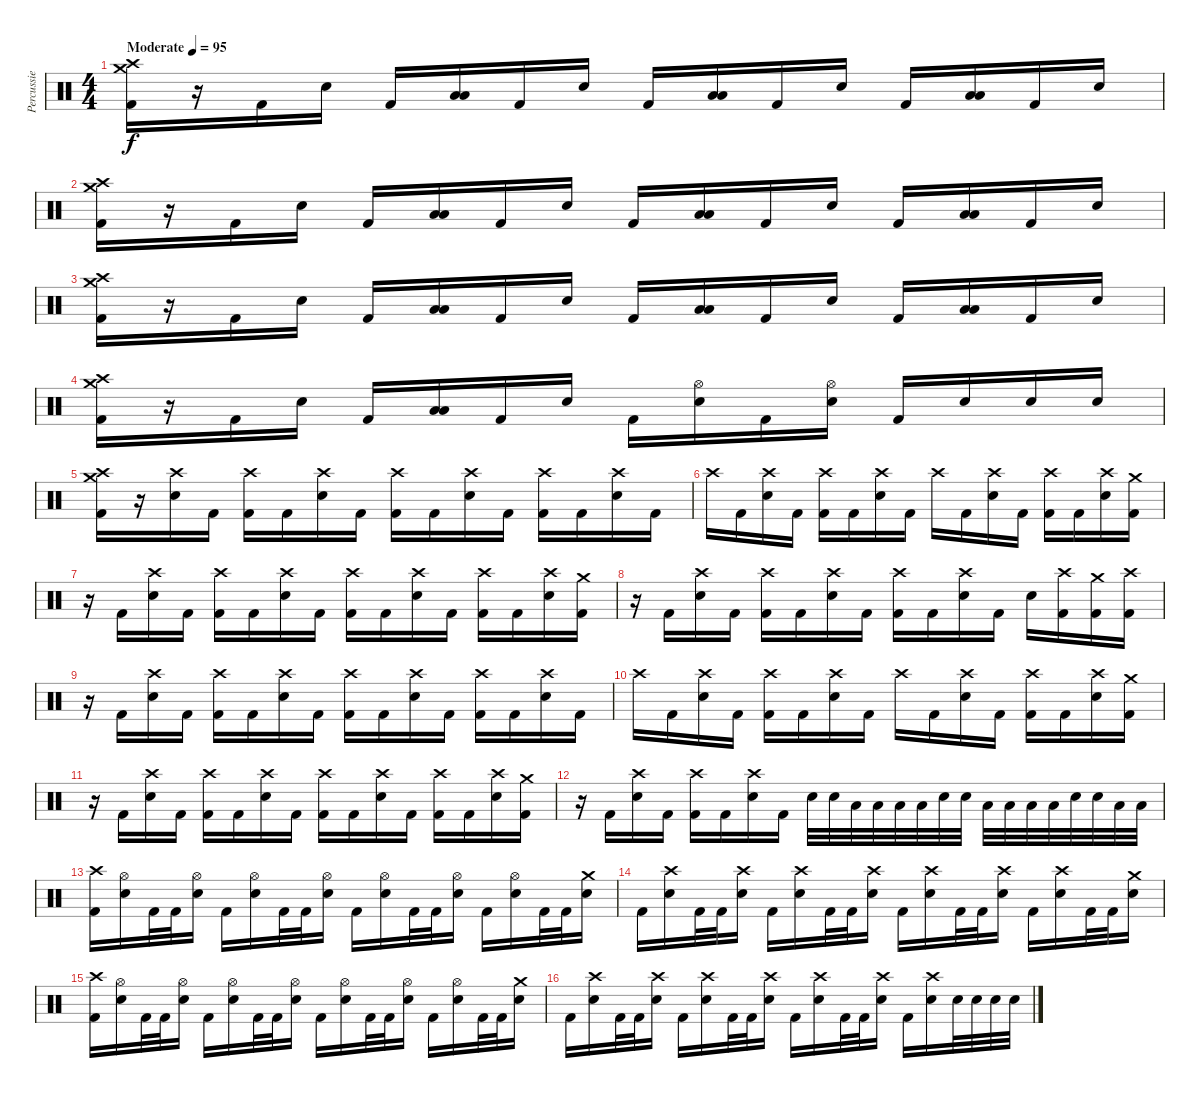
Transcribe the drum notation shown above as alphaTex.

\track ("Percussie" "Percussie") {instrument percussion}
\staff {score}
\articulation defaults
\ts (4 4)
\tempo (95 "Moderate")
\clef neutral
\ks c
("Crash medium (hit)" "Crash high (hit)" "Kick (hit) 2").16{dy f} r.16 "Kick (hit) 2".16 "Electric Snare (hit)".16 "Kick (hit) 2".16 ("Low Tom (hit)" "Low Floor Tom (hit)").16 "Kick (hit) 2".16 "Electric Snare (hit)".16 "Kick (hit) 2".16 ("Low Tom (hit)" "Low Floor Tom (hit)").16 "Kick (hit) 2".16 "Electric Snare (hit)".16 "Kick (hit) 2".16 ("Low Tom (hit)" "Low Floor Tom (hit)").16 "Kick (hit) 2".16 "Electric Snare (hit)".16 |
("Crash medium (hit)" "Crash high (hit)" "Kick (hit) 2").16 r.16 "Kick (hit) 2".16 "Electric Snare (hit)".16 "Kick (hit) 2".16 ("Low Tom (hit)" "Low Floor Tom (hit)").16 "Kick (hit) 2".16 "Electric Snare (hit)".16 "Kick (hit) 2".16 ("Low Tom (hit)" "Low Floor Tom (hit)").16 "Kick (hit) 2".16 "Electric Snare (hit)".16 "Kick (hit) 2".16 ("Low Tom (hit)" "Low Floor Tom (hit)").16 "Kick (hit) 2".16 "Electric Snare (hit)".16 |
("Crash medium (hit)" "Crash high (hit)" "Kick (hit) 2").16 r.16 "Kick (hit) 2".16 "Electric Snare (hit)".16 "Kick (hit) 2".16 ("Low Tom (hit)" "Low Floor Tom (hit)").16 "Kick (hit) 2".16 "Electric Snare (hit)".16 "Kick (hit) 2".16 ("Low Tom (hit)" "Low Floor Tom (hit)").16 "Kick (hit) 2".16 "Electric Snare (hit)".16 "Kick (hit) 2".16 ("Low Tom (hit)" "Low Floor Tom (hit)").16 "Kick (hit) 2".16 "Electric Snare (hit)".16 |
("Crash medium (hit)" "Crash high (hit)" "Kick (hit) 2").16 r.16 "Kick (hit) 2".16 "Electric Snare (hit)".16 "Kick (hit) 2".16 ("Low Tom (hit)" "Low Floor Tom (hit)").16 "Kick (hit) 2".16 "Electric Snare (hit)".16 "Kick (hit) 2".16 ("Hi-Hat (open)" "Electric Snare (hit)").16 "Kick (hit) 2".16 ("Hi-Hat (open)" "Electric Snare (hit)").16 "Kick (hit) 2".16 "Electric Snare (hit)".16 "Electric Snare (hit)".16 "Electric Snare (hit)".16 |
("Crash medium (hit)" "Crash high (hit)" "Kick (hit) 2").16 r.16 ("Crash high (hit)" "Electric Snare (hit)").16 "Kick (hit) 2".16 ("Crash high (hit)" "Kick (hit) 2").16 "Kick (hit) 2".16 ("Crash high (hit)" "Electric Snare (hit)").16 "Kick (hit) 2".16 ("Crash high (hit)" "Kick (hit) 2").16 "Kick (hit) 2".16 ("Crash high (hit)" "Electric Snare (hit)").16 "Kick (hit) 2".16 ("Crash high (hit)" "Kick (hit) 2").16 "Kick (hit) 2".16 ("Crash high (hit)" "Electric Snare (hit)").16 "Kick (hit) 2".16 |
"Crash high (hit)".16 "Kick (hit) 2".16 ("Crash high (hit)" "Electric Snare (hit)").16 "Kick (hit) 2".16 ("Crash high (hit)" "Kick (hit) 2").16 "Kick (hit) 2".16 ("Crash high (hit)" "Electric Snare (hit)").16 "Kick (hit) 2".16 "Crash high (hit)".16 "Kick (hit) 2".16 ("Crash high (hit)" "Electric Snare (hit)").16 "Kick (hit) 2".16 ("Crash high (hit)" "Kick (hit) 2").16 "Kick (hit) 2".16 ("Crash high (hit)" "Electric Snare (hit)").16 ("Crash medium (hit)" "Kick (hit) 2").16 |
r.16 "Kick (hit) 2".16 ("Crash high (hit)" "Electric Snare (hit)").16 "Kick (hit) 2".16 ("Crash high (hit)" "Kick (hit) 2").16 "Kick (hit) 2".16 ("Crash high (hit)" "Electric Snare (hit)").16 "Kick (hit) 2".16 ("Crash high (hit)" "Kick (hit) 2").16 "Kick (hit) 2".16 ("Crash high (hit)" "Electric Snare (hit)").16 "Kick (hit) 2".16 ("Crash high (hit)" "Kick (hit) 2").16 "Kick (hit) 2".16 ("Crash high (hit)" "Electric Snare (hit)").16 ("Crash medium (hit)" "Kick (hit) 2").16 |
r.16 "Kick (hit) 2".16 ("Crash high (hit)" "Electric Snare (hit)").16 "Kick (hit) 2".16 ("Crash high (hit)" "Kick (hit) 2").16 "Kick (hit) 2".16 ("Crash high (hit)" "Electric Snare (hit)").16 "Kick (hit) 2".16 ("Crash high (hit)" "Kick (hit) 2").16 "Kick (hit) 2".16 ("Crash high (hit)" "Electric Snare (hit)").16 "Kick (hit) 2".16 "Electric Snare (hit)".16 ("Crash high (hit)" "Kick (hit) 2").16 ("Crash medium (hit)" "Kick (hit) 2").16 ("Crash high (hit)" "Kick (hit) 2").16 |
r.16 "Kick (hit) 2".16 ("Crash high (hit)" "Electric Snare (hit)").16 "Kick (hit) 2".16 ("Crash high (hit)" "Kick (hit) 2").16 "Kick (hit) 2".16 ("Crash high (hit)" "Electric Snare (hit)").16 "Kick (hit) 2".16 ("Crash high (hit)" "Kick (hit) 2").16 "Kick (hit) 2".16 ("Crash high (hit)" "Electric Snare (hit)").16 "Kick (hit) 2".16 ("Crash high (hit)" "Kick (hit) 2").16 "Kick (hit) 2".16 ("Crash high (hit)" "Electric Snare (hit)").16 "Kick (hit) 2".16 |
"Crash high (hit)".16 "Kick (hit) 2".16 ("Crash high (hit)" "Electric Snare (hit)").16 "Kick (hit) 2".16 ("Crash high (hit)" "Kick (hit) 2").16 "Kick (hit) 2".16 ("Crash high (hit)" "Electric Snare (hit)").16 "Kick (hit) 2".16 "Crash high (hit)".16 "Kick (hit) 2".16 ("Crash high (hit)" "Electric Snare (hit)").16 "Kick (hit) 2".16 ("Crash high (hit)" "Kick (hit) 2").16 "Kick (hit) 2".16 ("Crash high (hit)" "Electric Snare (hit)").16 ("Crash medium (hit)" "Kick (hit) 2").16 |
r.16 "Kick (hit) 2".16 ("Crash high (hit)" "Electric Snare (hit)").16 "Kick (hit) 2".16 ("Crash high (hit)" "Kick (hit) 2").16 "Kick (hit) 2".16 ("Crash high (hit)" "Electric Snare (hit)").16 "Kick (hit) 2".16 ("Crash high (hit)" "Kick (hit) 2").16 "Kick (hit) 2".16 ("Crash high (hit)" "Electric Snare (hit)").16 "Kick (hit) 2".16 ("Crash high (hit)" "Kick (hit) 2").16 "Kick (hit) 2".16 ("Crash high (hit)" "Electric Snare (hit)").16 ("Crash medium (hit)" "Kick (hit) 2").16 |
r.16 "Kick (hit) 2".16 ("Crash high (hit)" "Electric Snare (hit)").16 "Kick (hit) 2".16 ("Crash high (hit)" "Kick (hit) 2").16 "Kick (hit) 2".16 ("Crash high (hit)" "Electric Snare (hit)").16 "Kick (hit) 2".16 "Electric Snare (hit)".32 "Electric Snare (hit)".32 "Low Tom (hit)".32 "Low Tom (hit)".32 "Low Floor Tom (hit)".32 "Low Floor Tom (hit)".32 "Electric Snare (hit)".32 "Electric Snare (hit)".32 "Low Tom (hit)".32 "Low Tom (hit)".32 "Low Floor Tom (hit)".32 "Low Floor Tom (hit)".32 "Electric Snare (hit)".32 "Electric Snare (hit)".32 "Low Tom (hit)".32 "Low Tom (hit)".32 |
("Crash high (hit)" "Kick (hit) 2").16 ("Hi-Hat (open)" "Electric Snare (hit)").16 "Kick (hit) 2".32 "Kick (hit) 2".32 ("Hi-Hat (open)" "Electric Snare (hit)").16 "Kick (hit) 2".16 ("Hi-Hat (open)" "Electric Snare (hit)").16 "Kick (hit) 2".32 "Kick (hit) 2".32 ("Hi-Hat (open)" "Electric Snare (hit)").16 "Kick (hit) 2".16 ("Hi-Hat (open)" "Electric Snare (hit)").16 "Kick (hit) 2".32 "Kick (hit) 2".32 ("Hi-Hat (open)" "Electric Snare (hit)").16 "Kick (hit) 2".16 ("Hi-Hat (open)" "Electric Snare (hit)").16 "Kick (hit) 2".32 "Kick (hit) 2".32 ("Crash medium (hit)" "Electric Snare (hit)").16 |
"Kick (hit) 2".16 ("Crash high (hit)" "Electric Snare (hit)").16 "Kick (hit) 2".32 "Kick (hit) 2".32 ("Crash high (hit)" "Electric Snare (hit)").16 "Kick (hit) 2".16 ("Crash high (hit)" "Electric Snare (hit)").16 "Kick (hit) 2".32 "Kick (hit) 2".32 ("Crash high (hit)" "Electric Snare (hit)").16 "Kick (hit) 2".16 ("Crash high (hit)" "Electric Snare (hit)").16 "Kick (hit) 2".32 "Kick (hit) 2".32 ("Crash high (hit)" "Electric Snare (hit)").16 "Kick (hit) 2".16 ("Crash high (hit)" "Electric Snare (hit)").16 "Kick (hit) 2".32 "Kick (hit) 2".32 ("Crash medium (hit)" "Electric Snare (hit)").16 |
("Crash high (hit)" "Kick (hit) 2").16 ("Hi-Hat (open)" "Electric Snare (hit)").16 "Kick (hit) 2".32 "Kick (hit) 2".32 ("Hi-Hat (open)" "Electric Snare (hit)").16 "Kick (hit) 2".16 ("Hi-Hat (open)" "Electric Snare (hit)").16 "Kick (hit) 2".32 "Kick (hit) 2".32 ("Hi-Hat (open)" "Electric Snare (hit)").16 "Kick (hit) 2".16 ("Hi-Hat (open)" "Electric Snare (hit)").16 "Kick (hit) 2".32 "Kick (hit) 2".32 ("Hi-Hat (open)" "Electric Snare (hit)").16 "Kick (hit) 2".16 ("Hi-Hat (open)" "Electric Snare (hit)").16 "Kick (hit) 2".32 "Kick (hit) 2".32 ("Crash medium (hit)" "Electric Snare (hit)").16 |
"Kick (hit) 2".16 ("Crash high (hit)" "Electric Snare (hit)").16 "Kick (hit) 2".32 "Kick (hit) 2".32 ("Crash high (hit)" "Electric Snare (hit)").16 "Kick (hit) 2".16 ("Crash high (hit)" "Electric Snare (hit)").16 "Kick (hit) 2".32 "Kick (hit) 2".32 ("Crash high (hit)" "Electric Snare (hit)").16 "Kick (hit) 2".16 ("Crash high (hit)" "Electric Snare (hit)").16 "Kick (hit) 2".32 "Kick (hit) 2".32 ("Crash high (hit)" "Electric Snare (hit)").16 "Kick (hit) 2".16 ("Crash high (hit)" "Electric Snare (hit)").16 "Electric Snare (hit)".32 "Electric Snare (hit)".32 "Electric Snare (hit)".32 "Electric Snare (hit)".32
